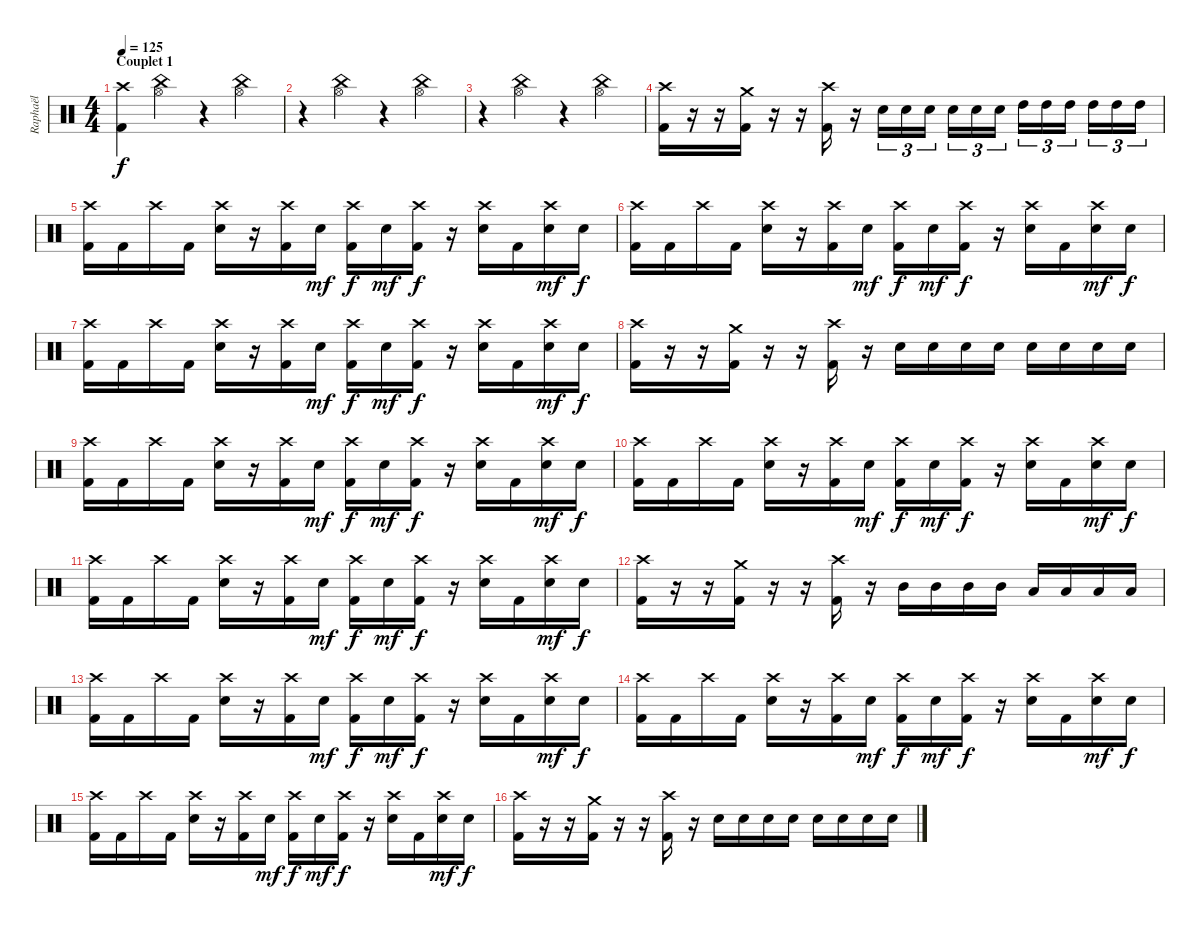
\track ("Raphaël" "Raphaël") {instrument percussion}
\staff {score}
\articulation defaults
\ts (4 4)
\section ("" "Couplet 1")
\tempo 125
\clef neutral
\ks c
("Kick (hit) 2" "Crash high (hit)").4{dy f} ("China (hit)" "Hi-Hat (open)").4 r.4 ("China (hit)" "Hi-Hat (open)").4 |
r.4 ("China (hit)" "Hi-Hat (open)").4 r.4 ("China (hit)" "Hi-Hat (open)").4 |
r.4 ("China (hit)" "Hi-Hat (open)").4 r.4 ("China (hit)" "Hi-Hat (open)").4 |
("Kick (hit) 2" "Crash high (hit)").16 r.16 r.16 ("Kick (hit) 2" "Crash medium (hit)").16 r.16 r.16 ("Kick (hit) 2" "Crash high (hit)").16 r.16 "Electric Snare (hit)".16{tu (3 2)} "Electric Snare (hit)".16{tu (3 2)} "Electric Snare (hit)".16{tu (3 2) beam splitsecondary} "Electric Snare (hit)".16{tu (3 2)} "Electric Snare (hit)".16{tu (3 2)} "Electric Snare (hit)".16{tu (3 2)} "High Tom (hit)".16{tu (3 2)} "High Tom (hit)".16{tu (3 2)} "High Tom (hit)".16{tu (3 2) beam splitsecondary} "High Tom (hit)".16{tu (3 2)} "High Tom (hit)".16{tu (3 2)} "High Tom (hit)".16{tu (3 2)} |
("Kick (hit) 2" "Crash high (hit)").16 "Kick (hit) 2".16 "Crash high (hit)".16 "Kick (hit) 2".16 ("Electric Snare (hit)" "Crash high (hit)").16 r.16 ("Kick (hit) 2" "Crash high (hit)").16 "Electric Snare (hit)".16{dy mf} ("Kick (hit) 2" "Crash high (hit)").16{dy f} "Electric Snare (hit)".16{dy mf} ("Kick (hit) 2" "Crash high (hit)").16{dy f} r.16 ("Electric Snare (hit)" "Crash high (hit)").16 "Kick (hit) 2".16 ("Electric Snare (hit)" "Crash high (hit)").16{dy mf} "Electric Snare (hit)".16{dy f} |
("Kick (hit) 2" "Crash high (hit)").16 "Kick (hit) 2".16 "Crash high (hit)".16 "Kick (hit) 2".16 ("Electric Snare (hit)" "Crash high (hit)").16 r.16 ("Kick (hit) 2" "Crash high (hit)").16 "Electric Snare (hit)".16{dy mf} ("Kick (hit) 2" "Crash high (hit)").16{dy f} "Electric Snare (hit)".16{dy mf} ("Kick (hit) 2" "Crash high (hit)").16{dy f} r.16 ("Electric Snare (hit)" "Crash high (hit)").16 "Kick (hit) 2".16 ("Electric Snare (hit)" "Crash high (hit)").16{dy mf} "Electric Snare (hit)".16{dy f} |
("Kick (hit) 2" "Crash high (hit)").16 "Kick (hit) 2".16 "Crash high (hit)".16 "Kick (hit) 2".16 ("Electric Snare (hit)" "Crash high (hit)").16 r.16 ("Kick (hit) 2" "Crash high (hit)").16 "Electric Snare (hit)".16{dy mf} ("Kick (hit) 2" "Crash high (hit)").16{dy f} "Electric Snare (hit)".16{dy mf} ("Kick (hit) 2" "Crash high (hit)").16{dy f} r.16 ("Electric Snare (hit)" "Crash high (hit)").16 "Kick (hit) 2".16 ("Electric Snare (hit)" "Crash high (hit)").16{dy mf} "Electric Snare (hit)".16{dy f} |
("Kick (hit) 2" "Crash high (hit)").16 r.16 r.16 ("Kick (hit) 2" "Crash medium (hit)").16 r.16 r.16 ("Kick (hit) 2" "Crash high (hit)").16 r.16 "Electric Snare (hit)".16 "Electric Snare (hit)".16 "Electric Snare (hit)".16 "Electric Snare (hit)".16 "Electric Snare (hit)".16 "Electric Snare (hit)".16 "Electric Snare (hit)".16 "Electric Snare (hit)".16 |
("Kick (hit) 2" "Crash high (hit)").16 "Kick (hit) 2".16 "Crash high (hit)".16 "Kick (hit) 2".16 ("Electric Snare (hit)" "Crash high (hit)").16 r.16 ("Kick (hit) 2" "Crash high (hit)").16 "Electric Snare (hit)".16{dy mf} ("Kick (hit) 2" "Crash high (hit)").16{dy f} "Electric Snare (hit)".16{dy mf} ("Kick (hit) 2" "Crash high (hit)").16{dy f} r.16 ("Electric Snare (hit)" "Crash high (hit)").16 "Kick (hit) 2".16 ("Electric Snare (hit)" "Crash high (hit)").16{dy mf} "Electric Snare (hit)".16{dy f} |
("Kick (hit) 2" "Crash high (hit)").16 "Kick (hit) 2".16 "Crash high (hit)".16 "Kick (hit) 2".16 ("Electric Snare (hit)" "Crash high (hit)").16 r.16 ("Kick (hit) 2" "Crash high (hit)").16 "Electric Snare (hit)".16{dy mf} ("Kick (hit) 2" "Crash high (hit)").16{dy f} "Electric Snare (hit)".16{dy mf} ("Kick (hit) 2" "Crash high (hit)").16{dy f} r.16 ("Electric Snare (hit)" "Crash high (hit)").16 "Kick (hit) 2".16 ("Electric Snare (hit)" "Crash high (hit)").16{dy mf} "Electric Snare (hit)".16{dy f} |
("Kick (hit) 2" "Crash high (hit)").16 "Kick (hit) 2".16 "Crash high (hit)".16 "Kick (hit) 2".16 ("Electric Snare (hit)" "Crash high (hit)").16 r.16 ("Kick (hit) 2" "Crash high (hit)").16 "Electric Snare (hit)".16{dy mf} ("Kick (hit) 2" "Crash high (hit)").16{dy f} "Electric Snare (hit)".16{dy mf} ("Kick (hit) 2" "Crash high (hit)").16{dy f} r.16 ("Electric Snare (hit)" "Crash high (hit)").16 "Kick (hit) 2".16 ("Electric Snare (hit)" "Crash high (hit)").16{dy mf} "Electric Snare (hit)".16{dy f} |
("Kick (hit) 2" "Crash high (hit)").16 r.16 r.16 ("Kick (hit) 2" "Crash medium (hit)").16 r.16 r.16 ("Kick (hit) 2" "Crash high (hit)").16 r.16 "Mid Tom (hit)".16 "Mid Tom (hit)".16 "Mid Tom (hit)".16 "Mid Tom (hit)".16 "Low Tom (hit)".16 "Low Tom (hit)".16 "Low Tom (hit)".16 "Low Tom (hit)".16 |
("Kick (hit) 2" "Crash high (hit)").16 "Kick (hit) 2".16 "Crash high (hit)".16 "Kick (hit) 2".16 ("Electric Snare (hit)" "Crash high (hit)").16 r.16 ("Kick (hit) 2" "Crash high (hit)").16 "Electric Snare (hit)".16{dy mf} ("Kick (hit) 2" "Crash high (hit)").16{dy f} "Electric Snare (hit)".16{dy mf} ("Kick (hit) 2" "Crash high (hit)").16{dy f} r.16 ("Electric Snare (hit)" "Crash high (hit)").16 "Kick (hit) 2".16 ("Electric Snare (hit)" "Crash high (hit)").16{dy mf} "Electric Snare (hit)".16{dy f} |
("Kick (hit) 2" "Crash high (hit)").16 "Kick (hit) 2".16 "Crash high (hit)".16 "Kick (hit) 2".16 ("Electric Snare (hit)" "Crash high (hit)").16 r.16 ("Kick (hit) 2" "Crash high (hit)").16 "Electric Snare (hit)".16{dy mf} ("Kick (hit) 2" "Crash high (hit)").16{dy f} "Electric Snare (hit)".16{dy mf} ("Kick (hit) 2" "Crash high (hit)").16{dy f} r.16 ("Electric Snare (hit)" "Crash high (hit)").16 "Kick (hit) 2".16 ("Electric Snare (hit)" "Crash high (hit)").16{dy mf} "Electric Snare (hit)".16{dy f} |
("Kick (hit) 2" "Crash high (hit)").16 "Kick (hit) 2".16 "Crash high (hit)".16 "Kick (hit) 2".16 ("Electric Snare (hit)" "Crash high (hit)").16 r.16 ("Kick (hit) 2" "Crash high (hit)").16 "Electric Snare (hit)".16{dy mf} ("Kick (hit) 2" "Crash high (hit)").16{dy f} "Electric Snare (hit)".16{dy mf} ("Kick (hit) 2" "Crash high (hit)").16{dy f} r.16 ("Electric Snare (hit)" "Crash high (hit)").16 "Kick (hit) 2".16 ("Electric Snare (hit)" "Crash high (hit)").16{dy mf} "Electric Snare (hit)".16{dy f} |
("Kick (hit) 2" "Crash high (hit)").16 r.16 r.16 ("Kick (hit) 2" "Crash medium (hit)").16 r.16 r.16 ("Kick (hit) 2" "Crash high (hit)").16 r.16 "Electric Snare (hit)".16 "Electric Snare (hit)".16 "Electric Snare (hit)".16 "Electric Snare (hit)".16 "Electric Snare (hit)".16 "Electric Snare (hit)".16 "Electric Snare (hit)".16 "Electric Snare (hit)".16
